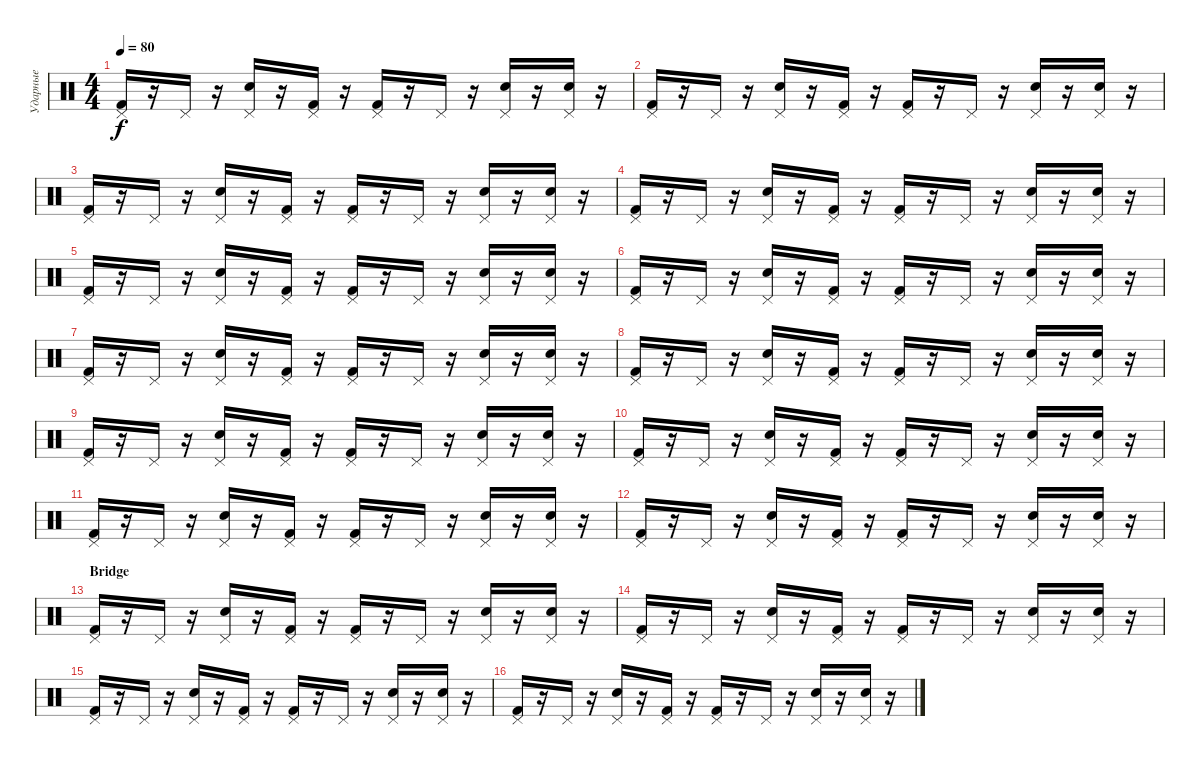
\track ("Ударные" "Ударные") {instrument percussion}
\staff {score}
\articulation defaults
\ts (4 4)
\tempo 80
\clef neutral
\ks c
("Pedal Hi-Hat (hit)" "Kick (hit) 2").16{dy f} r.16 "Pedal Hi-Hat (hit)".16 r.16 ("Pedal Hi-Hat (hit)" "Snare (hit) 2").16 r.16 ("Pedal Hi-Hat (hit)" "Kick (hit) 2").16 r.16 ("Pedal Hi-Hat (hit)" "Kick (hit) 2").16 r.16 "Pedal Hi-Hat (hit)".16 r.16 ("Pedal Hi-Hat (hit)" "Snare (hit) 2").16 r.16 ("Pedal Hi-Hat (hit)" "Snare (hit) 2").16 r.16 |
("Pedal Hi-Hat (hit)" "Kick (hit) 2").16 r.16 "Pedal Hi-Hat (hit)".16 r.16 ("Pedal Hi-Hat (hit)" "Snare (hit) 2").16 r.16 ("Pedal Hi-Hat (hit)" "Kick (hit) 2").16 r.16 ("Pedal Hi-Hat (hit)" "Kick (hit) 2").16 r.16 "Pedal Hi-Hat (hit)".16 r.16 ("Pedal Hi-Hat (hit)" "Snare (hit) 2").16 r.16 ("Pedal Hi-Hat (hit)" "Snare (hit) 2").16 r.16 |
("Pedal Hi-Hat (hit)" "Kick (hit) 2").16 r.16 "Pedal Hi-Hat (hit)".16 r.16 ("Pedal Hi-Hat (hit)" "Snare (hit) 2").16 r.16 ("Pedal Hi-Hat (hit)" "Kick (hit) 2").16 r.16 ("Pedal Hi-Hat (hit)" "Kick (hit) 2").16 r.16 "Pedal Hi-Hat (hit)".16 r.16 ("Pedal Hi-Hat (hit)" "Snare (hit) 2").16 r.16 ("Pedal Hi-Hat (hit)" "Snare (hit) 2").16 r.16 |
("Pedal Hi-Hat (hit)" "Kick (hit) 2").16 r.16 "Pedal Hi-Hat (hit)".16 r.16 ("Pedal Hi-Hat (hit)" "Snare (hit) 2").16 r.16 ("Pedal Hi-Hat (hit)" "Kick (hit) 2").16 r.16 ("Pedal Hi-Hat (hit)" "Kick (hit) 2").16 r.16 "Pedal Hi-Hat (hit)".16 r.16 ("Pedal Hi-Hat (hit)" "Snare (hit) 2").16 r.16 ("Pedal Hi-Hat (hit)" "Snare (hit) 2").16 r.16 |
("Pedal Hi-Hat (hit)" "Kick (hit) 2").16 r.16 "Pedal Hi-Hat (hit)".16 r.16 ("Pedal Hi-Hat (hit)" "Snare (hit) 2").16 r.16 ("Pedal Hi-Hat (hit)" "Kick (hit) 2").16 r.16 ("Pedal Hi-Hat (hit)" "Kick (hit) 2").16 r.16 "Pedal Hi-Hat (hit)".16 r.16 ("Pedal Hi-Hat (hit)" "Snare (hit) 2").16 r.16 ("Pedal Hi-Hat (hit)" "Snare (hit) 2").16 r.16 |
("Pedal Hi-Hat (hit)" "Kick (hit) 2").16 r.16 "Pedal Hi-Hat (hit)".16 r.16 ("Pedal Hi-Hat (hit)" "Snare (hit) 2").16 r.16 ("Pedal Hi-Hat (hit)" "Kick (hit) 2").16 r.16 ("Pedal Hi-Hat (hit)" "Kick (hit) 2").16 r.16 "Pedal Hi-Hat (hit)".16 r.16 ("Pedal Hi-Hat (hit)" "Snare (hit) 2").16 r.16 ("Pedal Hi-Hat (hit)" "Snare (hit) 2").16 r.16 |
("Pedal Hi-Hat (hit)" "Kick (hit) 2").16 r.16 "Pedal Hi-Hat (hit)".16 r.16 ("Pedal Hi-Hat (hit)" "Snare (hit) 2").16 r.16 ("Pedal Hi-Hat (hit)" "Kick (hit) 2").16 r.16 ("Pedal Hi-Hat (hit)" "Kick (hit) 2").16 r.16 "Pedal Hi-Hat (hit)".16 r.16 ("Pedal Hi-Hat (hit)" "Snare (hit) 2").16 r.16 ("Pedal Hi-Hat (hit)" "Snare (hit) 2").16 r.16 |
("Pedal Hi-Hat (hit)" "Kick (hit) 2").16 r.16 "Pedal Hi-Hat (hit)".16 r.16 ("Pedal Hi-Hat (hit)" "Snare (hit) 2").16 r.16 ("Pedal Hi-Hat (hit)" "Kick (hit) 2").16 r.16 ("Pedal Hi-Hat (hit)" "Kick (hit) 2").16 r.16 "Pedal Hi-Hat (hit)".16 r.16 ("Pedal Hi-Hat (hit)" "Snare (hit) 2").16 r.16 ("Pedal Hi-Hat (hit)" "Snare (hit) 2").16 r.16 |
("Pedal Hi-Hat (hit)" "Kick (hit) 2").16 r.16 "Pedal Hi-Hat (hit)".16 r.16 ("Pedal Hi-Hat (hit)" "Snare (hit) 2").16 r.16 ("Pedal Hi-Hat (hit)" "Kick (hit) 2").16 r.16 ("Pedal Hi-Hat (hit)" "Kick (hit) 2").16 r.16 "Pedal Hi-Hat (hit)".16 r.16 ("Pedal Hi-Hat (hit)" "Snare (hit) 2").16 r.16 ("Pedal Hi-Hat (hit)" "Snare (hit) 2").16 r.16 |
("Pedal Hi-Hat (hit)" "Kick (hit) 2").16 r.16 "Pedal Hi-Hat (hit)".16 r.16 ("Pedal Hi-Hat (hit)" "Snare (hit) 2").16 r.16 ("Pedal Hi-Hat (hit)" "Kick (hit) 2").16 r.16 ("Pedal Hi-Hat (hit)" "Kick (hit) 2").16 r.16 "Pedal Hi-Hat (hit)".16 r.16 ("Pedal Hi-Hat (hit)" "Snare (hit) 2").16 r.16 ("Pedal Hi-Hat (hit)" "Snare (hit) 2").16 r.16 |
("Pedal Hi-Hat (hit)" "Kick (hit) 2").16 r.16 "Pedal Hi-Hat (hit)".16 r.16 ("Pedal Hi-Hat (hit)" "Snare (hit) 2").16 r.16 ("Pedal Hi-Hat (hit)" "Kick (hit) 2").16 r.16 ("Pedal Hi-Hat (hit)" "Kick (hit) 2").16 r.16 "Pedal Hi-Hat (hit)".16 r.16 ("Pedal Hi-Hat (hit)" "Snare (hit) 2").16 r.16 ("Pedal Hi-Hat (hit)" "Snare (hit) 2").16 r.16 |
("Pedal Hi-Hat (hit)" "Kick (hit) 2").16 r.16 "Pedal Hi-Hat (hit)".16 r.16 ("Pedal Hi-Hat (hit)" "Snare (hit) 2").16 r.16 ("Pedal Hi-Hat (hit)" "Kick (hit) 2").16 r.16 ("Pedal Hi-Hat (hit)" "Kick (hit) 2").16 r.16 "Pedal Hi-Hat (hit)".16 r.16 ("Pedal Hi-Hat (hit)" "Snare (hit) 2").16 r.16 ("Pedal Hi-Hat (hit)" "Snare (hit) 2").16 r.16 |
\section ("" "Bridge")
("Pedal Hi-Hat (hit)" "Kick (hit) 2").16 r.16 "Pedal Hi-Hat (hit)".16 r.16 ("Pedal Hi-Hat (hit)" "Snare (hit) 2").16 r.16 ("Pedal Hi-Hat (hit)" "Kick (hit) 2").16 r.16 ("Pedal Hi-Hat (hit)" "Kick (hit) 2").16 r.16 "Pedal Hi-Hat (hit)".16 r.16 ("Pedal Hi-Hat (hit)" "Snare (hit) 2").16 r.16 ("Pedal Hi-Hat (hit)" "Snare (hit) 2").16 r.16 |
("Pedal Hi-Hat (hit)" "Kick (hit) 2").16 r.16 "Pedal Hi-Hat (hit)".16 r.16 ("Pedal Hi-Hat (hit)" "Snare (hit) 2").16 r.16 ("Pedal Hi-Hat (hit)" "Kick (hit) 2").16 r.16 ("Pedal Hi-Hat (hit)" "Kick (hit) 2").16 r.16 "Pedal Hi-Hat (hit)".16 r.16 ("Pedal Hi-Hat (hit)" "Snare (hit) 2").16 r.16 ("Pedal Hi-Hat (hit)" "Snare (hit) 2").16 r.16 |
("Pedal Hi-Hat (hit)" "Kick (hit) 2").16 r.16 "Pedal Hi-Hat (hit)".16 r.16 ("Pedal Hi-Hat (hit)" "Snare (hit) 2").16 r.16 ("Pedal Hi-Hat (hit)" "Kick (hit) 2").16 r.16 ("Pedal Hi-Hat (hit)" "Kick (hit) 2").16 r.16 "Pedal Hi-Hat (hit)".16 r.16 ("Pedal Hi-Hat (hit)" "Snare (hit) 2").16 r.16 ("Pedal Hi-Hat (hit)" "Snare (hit) 2").16 r.16 |
("Pedal Hi-Hat (hit)" "Kick (hit) 2").16 r.16 "Pedal Hi-Hat (hit)".16 r.16 ("Pedal Hi-Hat (hit)" "Snare (hit) 2").16 r.16 ("Pedal Hi-Hat (hit)" "Kick (hit) 2").16 r.16 ("Pedal Hi-Hat (hit)" "Kick (hit) 2").16 r.16 "Pedal Hi-Hat (hit)".16 r.16 ("Pedal Hi-Hat (hit)" "Snare (hit) 2").16 r.16 ("Pedal Hi-Hat (hit)" "Snare (hit) 2").16 r.16
